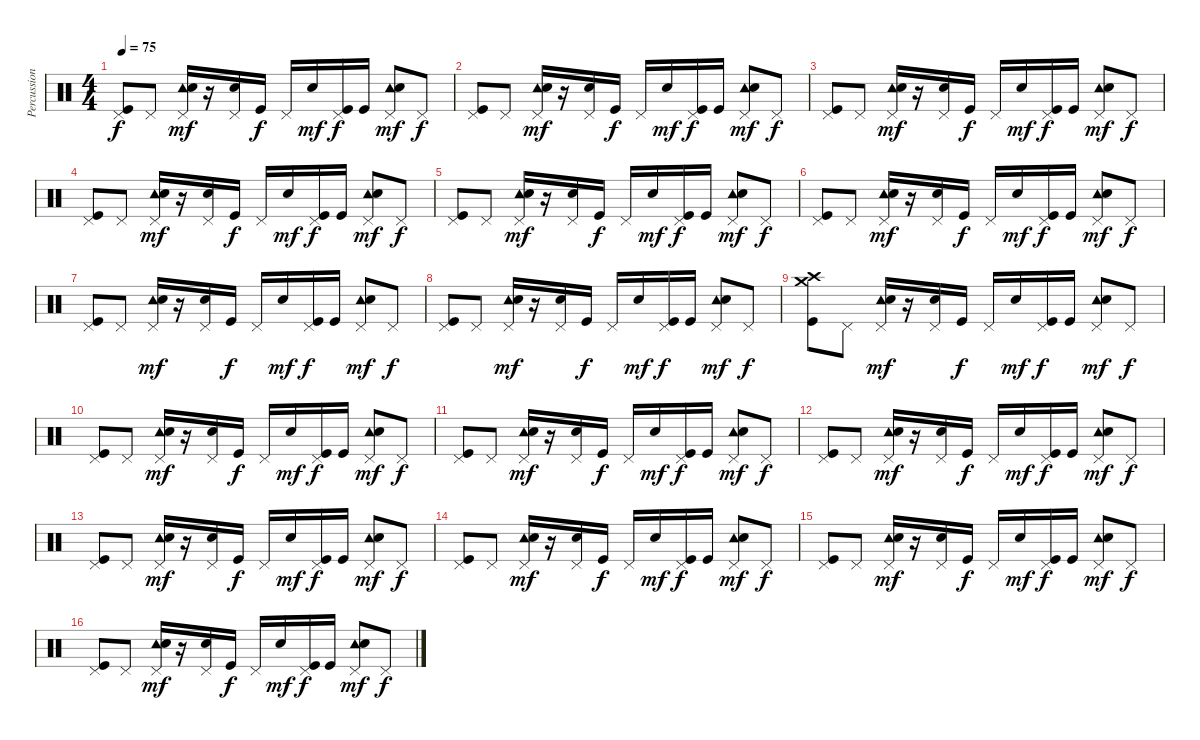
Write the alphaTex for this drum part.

\track ("Percussions" "Percussion") {instrument percussion}
\staff {score}
\articulation defaults
\ts (4 4)
\tempo 75
\clef neutral
\ks c
("Pedal Hi-Hat (hit)" "Kick (hit)").8{dy f} "Pedal Hi-Hat (hit)".8 ("Pedal Hi-Hat (hit)" "Tambourine (hit)" "Electric Snare (hit)").16{dy mf} r.16 ("Pedal Hi-Hat (hit)" "Electric Snare (hit)").16 "Kick (hit)".16{dy f} "Pedal Hi-Hat (hit)".16 "Electric Snare (hit)".16{dy mf} ("Pedal Hi-Hat (hit)" "Kick (hit)").16{dy f} "Kick (hit)".16 ("Pedal Hi-Hat (hit)" "Tambourine (hit)" "Electric Snare (hit)").8{dy mf} "Pedal Hi-Hat (hit)".8{dy f} |
("Pedal Hi-Hat (hit)" "Kick (hit)").8 "Pedal Hi-Hat (hit)".8 ("Pedal Hi-Hat (hit)" "Tambourine (hit)" "Electric Snare (hit)").16{dy mf} r.16 ("Pedal Hi-Hat (hit)" "Electric Snare (hit)").16 "Kick (hit)".16{dy f} "Pedal Hi-Hat (hit)".16 "Electric Snare (hit)".16{dy mf} ("Pedal Hi-Hat (hit)" "Kick (hit)").16{dy f} "Kick (hit)".16 ("Pedal Hi-Hat (hit)" "Tambourine (hit)" "Electric Snare (hit)").8{dy mf} "Pedal Hi-Hat (hit)".8{dy f} |
("Pedal Hi-Hat (hit)" "Kick (hit)").8 "Pedal Hi-Hat (hit)".8 ("Pedal Hi-Hat (hit)" "Tambourine (hit)" "Electric Snare (hit)").16{dy mf} r.16 ("Pedal Hi-Hat (hit)" "Electric Snare (hit)").16 "Kick (hit)".16{dy f} "Pedal Hi-Hat (hit)".16 "Electric Snare (hit)".16{dy mf} ("Pedal Hi-Hat (hit)" "Kick (hit)").16{dy f} "Kick (hit)".16 ("Pedal Hi-Hat (hit)" "Tambourine (hit)" "Electric Snare (hit)").8{dy mf} "Pedal Hi-Hat (hit)".8{dy f} |
("Pedal Hi-Hat (hit)" "Kick (hit)").8 "Pedal Hi-Hat (hit)".8 ("Pedal Hi-Hat (hit)" "Tambourine (hit)" "Electric Snare (hit)").16{dy mf} r.16 ("Pedal Hi-Hat (hit)" "Electric Snare (hit)").16 "Kick (hit)".16{dy f} "Pedal Hi-Hat (hit)".16 "Electric Snare (hit)".16{dy mf} ("Pedal Hi-Hat (hit)" "Kick (hit)").16{dy f} "Kick (hit)".16 ("Pedal Hi-Hat (hit)" "Tambourine (hit)" "Electric Snare (hit)").8{dy mf} "Pedal Hi-Hat (hit)".8{dy f} |
("Pedal Hi-Hat (hit)" "Kick (hit)").8 "Pedal Hi-Hat (hit)".8 ("Pedal Hi-Hat (hit)" "Tambourine (hit)" "Electric Snare (hit)").16{dy mf} r.16 ("Pedal Hi-Hat (hit)" "Electric Snare (hit)").16 "Kick (hit)".16{dy f} "Pedal Hi-Hat (hit)".16 "Electric Snare (hit)".16{dy mf} ("Pedal Hi-Hat (hit)" "Kick (hit)").16{dy f} "Kick (hit)".16 ("Pedal Hi-Hat (hit)" "Tambourine (hit)" "Electric Snare (hit)").8{dy mf} "Pedal Hi-Hat (hit)".8{dy f} |
("Pedal Hi-Hat (hit)" "Kick (hit)").8 "Pedal Hi-Hat (hit)".8 ("Pedal Hi-Hat (hit)" "Tambourine (hit)" "Electric Snare (hit)").16{dy mf} r.16 ("Pedal Hi-Hat (hit)" "Electric Snare (hit)").16 "Kick (hit)".16{dy f} "Pedal Hi-Hat (hit)".16 "Electric Snare (hit)".16{dy mf} ("Pedal Hi-Hat (hit)" "Kick (hit)").16{dy f} "Kick (hit)".16 ("Pedal Hi-Hat (hit)" "Tambourine (hit)" "Electric Snare (hit)").8{dy mf} "Pedal Hi-Hat (hit)".8{dy f} |
("Pedal Hi-Hat (hit)" "Kick (hit)").8 "Pedal Hi-Hat (hit)".8 ("Pedal Hi-Hat (hit)" "Tambourine (hit)" "Electric Snare (hit)").16{dy mf} r.16 ("Pedal Hi-Hat (hit)" "Electric Snare (hit)").16 "Kick (hit)".16{dy f} "Pedal Hi-Hat (hit)".16 "Electric Snare (hit)".16{dy mf} ("Pedal Hi-Hat (hit)" "Kick (hit)").16{dy f} "Kick (hit)".16 ("Pedal Hi-Hat (hit)" "Tambourine (hit)" "Electric Snare (hit)").8{dy mf} "Pedal Hi-Hat (hit)".8{dy f} |
("Pedal Hi-Hat (hit)" "Kick (hit)").8 "Pedal Hi-Hat (hit)".8 ("Pedal Hi-Hat (hit)" "Tambourine (hit)" "Electric Snare (hit)").16{dy mf} r.16 ("Pedal Hi-Hat (hit)" "Electric Snare (hit)").16 "Kick (hit)".16{dy f} "Pedal Hi-Hat (hit)".16 "Electric Snare (hit)".16{dy mf} ("Pedal Hi-Hat (hit)" "Kick (hit)").16{dy f} "Kick (hit)".16 ("Pedal Hi-Hat (hit)" "Tambourine (hit)" "Electric Snare (hit)").8{dy mf} "Pedal Hi-Hat (hit)".8{dy f} |
("Crash medium (hit)" "Crash high (hit)" "Kick (hit)").8 "Pedal Hi-Hat (hit)".8 ("Pedal Hi-Hat (hit)" "Tambourine (hit)" "Electric Snare (hit)").16{dy mf} r.16 ("Pedal Hi-Hat (hit)" "Electric Snare (hit)").16 "Kick (hit)".16{dy f} "Pedal Hi-Hat (hit)".16 "Electric Snare (hit)".16{dy mf} ("Pedal Hi-Hat (hit)" "Kick (hit)").16{dy f} "Kick (hit)".16 ("Pedal Hi-Hat (hit)" "Tambourine (hit)" "Electric Snare (hit)").8{dy mf} "Pedal Hi-Hat (hit)".8{dy f} |
("Pedal Hi-Hat (hit)" "Kick (hit)").8 "Pedal Hi-Hat (hit)".8 ("Pedal Hi-Hat (hit)" "Tambourine (hit)" "Electric Snare (hit)").16{dy mf} r.16 ("Pedal Hi-Hat (hit)" "Electric Snare (hit)").16 "Kick (hit)".16{dy f} "Pedal Hi-Hat (hit)".16 "Electric Snare (hit)".16{dy mf} ("Pedal Hi-Hat (hit)" "Kick (hit)").16{dy f} "Kick (hit)".16 ("Pedal Hi-Hat (hit)" "Tambourine (hit)" "Electric Snare (hit)").8{dy mf} "Pedal Hi-Hat (hit)".8{dy f} |
("Pedal Hi-Hat (hit)" "Kick (hit)").8 "Pedal Hi-Hat (hit)".8 ("Pedal Hi-Hat (hit)" "Tambourine (hit)" "Electric Snare (hit)").16{dy mf} r.16 ("Pedal Hi-Hat (hit)" "Electric Snare (hit)").16 "Kick (hit)".16{dy f} "Pedal Hi-Hat (hit)".16 "Electric Snare (hit)".16{dy mf} ("Pedal Hi-Hat (hit)" "Kick (hit)").16{dy f} "Kick (hit)".16 ("Pedal Hi-Hat (hit)" "Tambourine (hit)" "Electric Snare (hit)").8{dy mf} "Pedal Hi-Hat (hit)".8{dy f} |
("Pedal Hi-Hat (hit)" "Kick (hit)").8 "Pedal Hi-Hat (hit)".8 ("Pedal Hi-Hat (hit)" "Tambourine (hit)" "Electric Snare (hit)").16{dy mf} r.16 ("Pedal Hi-Hat (hit)" "Electric Snare (hit)").16 "Kick (hit)".16{dy f} "Pedal Hi-Hat (hit)".16 "Electric Snare (hit)".16{dy mf} ("Pedal Hi-Hat (hit)" "Kick (hit)").16{dy f} "Kick (hit)".16 ("Pedal Hi-Hat (hit)" "Tambourine (hit)" "Electric Snare (hit)").8{dy mf} "Pedal Hi-Hat (hit)".8{dy f} |
("Pedal Hi-Hat (hit)" "Kick (hit)").8 "Pedal Hi-Hat (hit)".8 ("Pedal Hi-Hat (hit)" "Tambourine (hit)" "Electric Snare (hit)").16{dy mf} r.16 ("Pedal Hi-Hat (hit)" "Electric Snare (hit)").16 "Kick (hit)".16{dy f} "Pedal Hi-Hat (hit)".16 "Electric Snare (hit)".16{dy mf} ("Pedal Hi-Hat (hit)" "Kick (hit)").16{dy f} "Kick (hit)".16 ("Pedal Hi-Hat (hit)" "Tambourine (hit)" "Electric Snare (hit)").8{dy mf} "Pedal Hi-Hat (hit)".8{dy f} |
("Pedal Hi-Hat (hit)" "Kick (hit)").8 "Pedal Hi-Hat (hit)".8 ("Pedal Hi-Hat (hit)" "Tambourine (hit)" "Electric Snare (hit)").16{dy mf} r.16 ("Pedal Hi-Hat (hit)" "Electric Snare (hit)").16 "Kick (hit)".16{dy f} "Pedal Hi-Hat (hit)".16 "Electric Snare (hit)".16{dy mf} ("Pedal Hi-Hat (hit)" "Kick (hit)").16{dy f} "Kick (hit)".16 ("Pedal Hi-Hat (hit)" "Tambourine (hit)" "Electric Snare (hit)").8{dy mf} "Pedal Hi-Hat (hit)".8{dy f} |
("Pedal Hi-Hat (hit)" "Kick (hit)").8 "Pedal Hi-Hat (hit)".8 ("Pedal Hi-Hat (hit)" "Tambourine (hit)" "Electric Snare (hit)").16{dy mf} r.16 ("Pedal Hi-Hat (hit)" "Electric Snare (hit)").16 "Kick (hit)".16{dy f} "Pedal Hi-Hat (hit)".16 "Electric Snare (hit)".16{dy mf} ("Pedal Hi-Hat (hit)" "Kick (hit)").16{dy f} "Kick (hit)".16 ("Pedal Hi-Hat (hit)" "Tambourine (hit)" "Electric Snare (hit)").8{dy mf} "Pedal Hi-Hat (hit)".8{dy f} |
("Pedal Hi-Hat (hit)" "Kick (hit)").8 "Pedal Hi-Hat (hit)".8 ("Pedal Hi-Hat (hit)" "Tambourine (hit)" "Electric Snare (hit)").16{dy mf} r.16 ("Pedal Hi-Hat (hit)" "Electric Snare (hit)").16 "Kick (hit)".16{dy f} "Pedal Hi-Hat (hit)".16 "Electric Snare (hit)".16{dy mf} ("Pedal Hi-Hat (hit)" "Kick (hit)").16{dy f} "Kick (hit)".16 ("Pedal Hi-Hat (hit)" "Tambourine (hit)" "Electric Snare (hit)").8{dy mf} "Pedal Hi-Hat (hit)".8{dy f}
